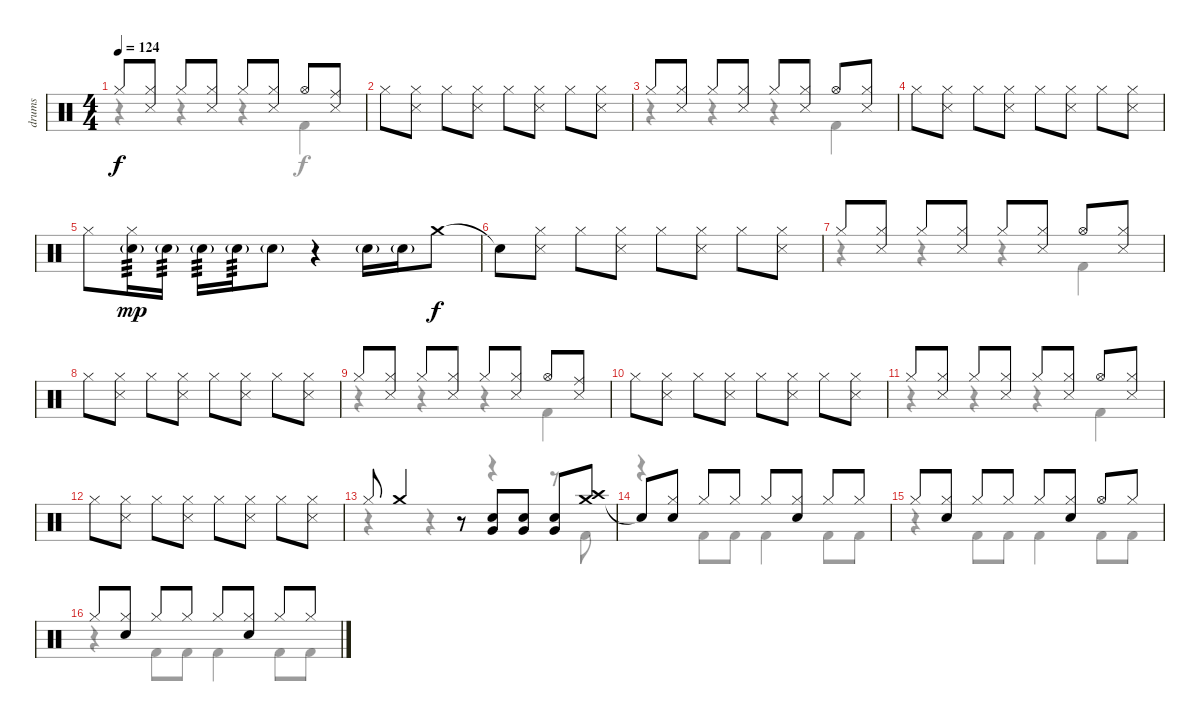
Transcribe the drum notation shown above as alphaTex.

\track ("drums" "drums") {instrument percussion}
\staff {score}
\articulation defaults
\voice
\ts (4 4)
\tempo 124
\clef neutral
\ks c "Hi-Hat (closed)".8{dy f}
("Hi-Hat (closed)" "Snare (side stick) 3").8 "Hi-Hat (closed)".8 ("Hi-Hat (closed)" "Snare (side stick) 3").8 "Hi-Hat (closed)".8 ("Hi-Hat (closed)" "Snare (side stick) 3").8 "Hi-Hat (open)".8 ("Ride (middle)" "Snare (side stick) 3").8 |
"Hi-Hat (closed)".8 ("Hi-Hat (closed)" "Snare (side stick) 3").8 "Hi-Hat (closed)".8 ("Hi-Hat (closed)" "Snare (side stick) 3").8 "Hi-Hat (closed)".8 ("Hi-Hat (closed)" "Snare (side stick) 3").8 "Hi-Hat (closed)".8 ("Hi-Hat (closed)" "Snare (side stick) 3").8 |
"Hi-Hat (closed)".8 ("Hi-Hat (closed)" "Snare (side stick) 3").8 "Hi-Hat (closed)".8 ("Hi-Hat (closed)" "Snare (side stick) 3").8 "Hi-Hat (closed)".8 ("Hi-Hat (closed)" "Snare (side stick) 3").8 "Hi-Hat (open)".8 ("Hi-Hat (closed)" "Snare (side stick) 3").8 |
"Hi-Hat (closed)".8 ("Hi-Hat (closed)" "Snare (side stick) 3").8 "Hi-Hat (closed)".8 ("Hi-Hat (closed)" "Snare (side stick) 3").8 "Hi-Hat (closed)".8 ("Hi-Hat (closed)" "Snare (side stick) 3").8 "Hi-Hat (closed)".8 ("Hi-Hat (closed)" "Snare (side stick) 3").8 |
"Hi-Hat (closed)".8 ("Hi-Hat (closed)" "Snare (hit) 2"{g}).16{tp 3 dy mp} "Snare (hit) 2"{g}.16{tp 3} "Snare (hit) 2"{g}.16{tp 3} "Snare (hit) 2"{g}.16{tp 3} "Snare (hit) 2"{g}.8 r.4 "Snare (hit) 2"{g}.16 "Snare (hit) 2"{g}.16 "Crash medium (hit)".8{dy f} |
"Snare (hit)"{t}.8 ("Hi-Hat (closed)" "Snare (side stick) 3").8 "Hi-Hat (closed)".8 ("Hi-Hat (closed)" "Snare (side stick) 3").8 "Hi-Hat (closed)".8 ("Hi-Hat (closed)" "Snare (side stick) 3").8 "Hi-Hat (closed)".8 ("Hi-Hat (closed)" "Snare (side stick) 3").8 |
"Hi-Hat (closed)".8 ("Hi-Hat (closed)" "Snare (side stick) 3").8 "Hi-Hat (closed)".8 ("Hi-Hat (closed)" "Snare (side stick) 3").8 "Hi-Hat (closed)".8 ("Hi-Hat (closed)" "Snare (side stick) 3").8 "Hi-Hat (open)".8 ("Hi-Hat (closed)" "Snare (side stick) 3").8 |
"Hi-Hat (closed)".8 ("Hi-Hat (closed)" "Snare (side stick) 3").8 "Hi-Hat (closed)".8 ("Hi-Hat (closed)" "Snare (side stick) 3").8 "Hi-Hat (closed)".8 ("Hi-Hat (closed)" "Snare (side stick) 3").8 "Hi-Hat (closed)".8 ("Hi-Hat (closed)" "Snare (side stick) 3").8 |
"Hi-Hat (closed)".8 ("Hi-Hat (closed)" "Snare (side stick) 3").8 "Hi-Hat (closed)".8 ("Hi-Hat (closed)" "Snare (side stick) 3").8 "Hi-Hat (closed)".8 ("Hi-Hat (closed)" "Snare (side stick) 3").8 "Hi-Hat (open)".8 ("Ride (middle)" "Snare (side stick) 3").8 |
"Hi-Hat (closed)".8 ("Hi-Hat (closed)" "Snare (side stick) 3").8 "Hi-Hat (closed)".8 ("Hi-Hat (closed)" "Snare (side stick) 3").8 "Hi-Hat (closed)".8 ("Hi-Hat (closed)" "Snare (side stick) 3").8 "Hi-Hat (closed)".8 ("Hi-Hat (closed)" "Snare (side stick) 3").8 |
"Hi-Hat (closed)".8 ("Hi-Hat (closed)" "Snare (side stick) 3").8 "Hi-Hat (closed)".8 ("Hi-Hat (closed)" "Snare (side stick) 3").8 "Hi-Hat (closed)".8 ("Hi-Hat (closed)" "Snare (side stick) 3").8 "Hi-Hat (open)".8 ("Hi-Hat (closed)" "Snare (side stick) 3").8 |
"Hi-Hat (closed)".8 ("Hi-Hat (closed)" "Snare (side stick) 3").8 "Hi-Hat (closed)".8 ("Hi-Hat (closed)" "Snare (side stick) 3").8 "Hi-Hat (closed)".8 ("Hi-Hat (closed)" "Snare (side stick) 3").8 "Hi-Hat (closed)".8 ("Hi-Hat (closed)" "Snare (side stick) 3").8 |
"Hi-Hat (closed)".8 "Crash medium (hit)".4 r.8 ("Snare (hit) 2" "Very Low Tom (hit)").8 ("Snare (hit) 2" "Very Low Tom (hit)").8 ("Snare (hit) 2" "Very Low Tom (hit)").8 ("Crash medium (hit)" "Crash high (hit)").8 |
"Snare (hit)"{t}.8 ("Hi-Hat (closed)" "Snare (hit) 2").8 "Hi-Hat (closed)".8 "Hi-Hat (closed)".8 "Hi-Hat (closed)".8 ("Hi-Hat (closed)" "Snare (hit) 2").8 "Hi-Hat (closed)".8 "Hi-Hat (closed)".8 |
"Hi-Hat (closed)".8 ("Hi-Hat (closed)" "Snare (hit) 2").8 "Hi-Hat (closed)".8 "Hi-Hat (closed)".8 "Hi-Hat (closed)".8 ("Hi-Hat (closed)" "Snare (hit) 2").8 "Hi-Hat (open)".8 "Hi-Hat (closed)".8 |
"Hi-Hat (closed)".8 ("Hi-Hat (closed)" "Snare (hit) 2").8 "Hi-Hat (closed)".8 "Hi-Hat (closed)".8 "Hi-Hat (closed)".8 ("Hi-Hat (closed)" "Snare (hit) 2").8 "Hi-Hat (closed)".8 "Hi-Hat (closed)".8
\voice
\clef neutral
\ottava regular
\simile none
\ks c
r.4{dy f} r.4 r.4 "Kick (hit) 2".4 |
|
r.4 r.4 r.4 "Kick (hit) 2".4 |
|
|
|
r.4 r.4 r.4 "Kick (hit) 2".4 |
|
r.4 r.4 r.4 "Kick (hit) 2".4 |
|
r.4 r.4 r.4 "Kick (hit) 2".4 |
|
r.4 r.4 r.4 r.8 "Kick (hit) 2".8 |
r.4 "Kick (hit) 2".8 "Kick (hit) 2".8 "Kick (hit) 2".4 "Kick (hit) 2".8 "Kick (hit) 2".8 |
r.4 "Kick (hit) 2".8 "Kick (hit) 2".8 "Kick (hit) 2".4 "Kick (hit) 2".8 "Kick (hit) 2".8 |
r.4 "Kick (hit) 2".8 "Kick (hit) 2".8 "Kick (hit) 2".4 "Kick (hit) 2".8 "Kick (hit) 2".8
